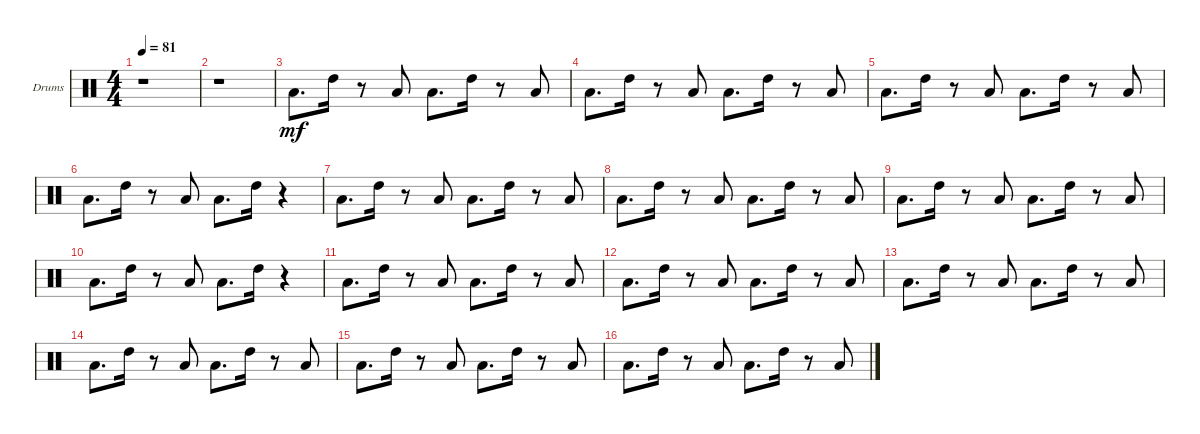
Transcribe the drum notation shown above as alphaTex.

\bracketExtendMode groupsimilarinstruments
\firstSystemTrackNameOrientation horizontal
\otherSystemsTrackNameOrientation horizontal
\track ("Drumkit" "Drums") {instrument percussion}
\staff {score}
\articulation defaults
\ts (4 4)
\tempo 81
\clef neutral
\ks c
r.1{dy mf} |
r.1 |
"Low Tom (hit)".8{d} "High Tom (hit)".16 r.8 "Low Tom (hit)".8 "Low Tom (hit)".8{d} "High Tom (hit)".16 r.8 "Low Tom (hit)".8 |
"Low Tom (hit)".8{d} "High Tom (hit)".16 r.8 "Low Tom (hit)".8 "Low Tom (hit)".8{d} "High Tom (hit)".16 r.8 "Low Tom (hit)".8 |
"Low Tom (hit)".8{d} "High Tom (hit)".16 r.8 "Low Tom (hit)".8 "Low Tom (hit)".8{d} "High Tom (hit)".16 r.8 "Low Tom (hit)".8 |
"Low Tom (hit)".8{d} "High Tom (hit)".16 r.8 "Low Tom (hit)".8 "Low Tom (hit)".8{d} "High Tom (hit)".16 r.4 |
"Low Tom (hit)".8{d} "High Tom (hit)".16 r.8 "Low Tom (hit)".8 "Low Tom (hit)".8{d} "High Tom (hit)".16 r.8 "Low Tom (hit)".8 |
"Low Tom (hit)".8{d} "High Tom (hit)".16 r.8 "Low Tom (hit)".8 "Low Tom (hit)".8{d} "High Tom (hit)".16 r.8 "Low Tom (hit)".8 |
"Low Tom (hit)".8{d} "High Tom (hit)".16 r.8 "Low Tom (hit)".8 "Low Tom (hit)".8{d} "High Tom (hit)".16 r.8 "Low Tom (hit)".8 |
"Low Tom (hit)".8{d} "High Tom (hit)".16 r.8 "Low Tom (hit)".8 "Low Tom (hit)".8{d} "High Tom (hit)".16 r.4 |
"Low Tom (hit)".8{d} "High Tom (hit)".16 r.8 "Low Tom (hit)".8 "Low Tom (hit)".8{d} "High Tom (hit)".16 r.8 "Low Tom (hit)".8 |
"Low Tom (hit)".8{d} "High Tom (hit)".16 r.8 "Low Tom (hit)".8 "Low Tom (hit)".8{d} "High Tom (hit)".16 r.8 "Low Tom (hit)".8 |
"Low Tom (hit)".8{d} "High Tom (hit)".16 r.8 "Low Tom (hit)".8 "Low Tom (hit)".8{d} "High Tom (hit)".16 r.8 "Low Tom (hit)".8 |
"Low Tom (hit)".8{d} "High Tom (hit)".16 r.8 "Low Tom (hit)".8 "Low Tom (hit)".8{d} "High Tom (hit)".16 r.8 "Low Tom (hit)".8 |
"Low Tom (hit)".8{d} "High Tom (hit)".16 r.8 "Low Tom (hit)".8 "Low Tom (hit)".8{d} "High Tom (hit)".16 r.8 "Low Tom (hit)".8 |
"Low Tom (hit)".8{d} "High Tom (hit)".16 r.8 "Low Tom (hit)".8 "Low Tom (hit)".8{d} "High Tom (hit)".16 r.8 "Low Tom (hit)".8
